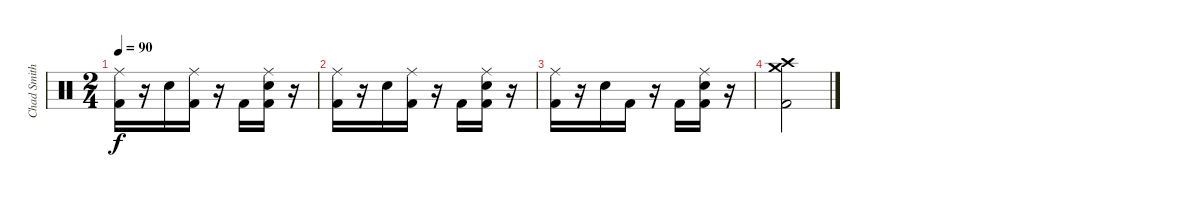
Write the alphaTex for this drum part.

\track ("Chad Smith" "Chad Smith") {instrument percussion}
\staff {score}
\articulation defaults
\ts (2 4)
\tempo 90
\clef neutral
\ks c
("Ride (middle)" "Kick (hit) 2").16{dy f} r.16 "Electric Snare (hit)".16 ("Ride (middle)" "Kick (hit) 2").16 r.16 "Kick (hit) 2".16 ("Ride (middle)" "Electric Snare (hit)" "Kick (hit) 2").16 r.16 |
("Ride (middle)" "Kick (hit) 2").16 r.16 "Electric Snare (hit)".16 ("Ride (middle)" "Kick (hit) 2").16 r.16 "Kick (hit) 2".16 ("Ride (middle)" "Electric Snare (hit)" "Kick (hit) 2").16 r.16 |
("Ride (middle)" "Kick (hit) 2").16 r.16 "Electric Snare (hit)".16 "Kick (hit) 2".16 r.16 "Kick (hit) 2".16 ("Ride (middle)" "Electric Snare (hit)" "Kick (hit) 2").16 r.16 |
("Crash medium (hit)" "Crash high (hit)" "Kick (hit) 2").2
